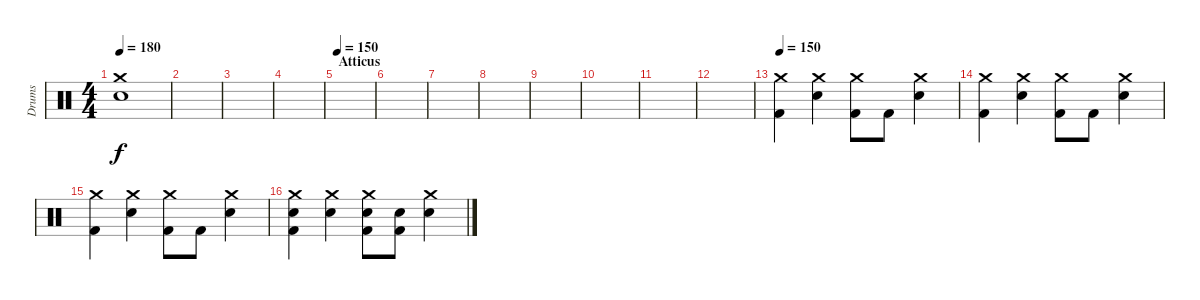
\track ("Drums" "Drums") {instrument percussion}
\staff {score}
\articulation defaults
\ts (4 4)
\tempo 180
\clef neutral
\ks c
("Crash medium (hit)" "Snare (hit) 2").1{dy f} |
|
|
|
\section ("" "Atticus")
\tempo 150
|
|
|
|
|
|
|
|
\tempo 150
("Crash medium (hit)" "Kick (hit) 2").4 ("Crash medium (hit)" "Snare (hit) 2").4 ("Crash medium (hit)" "Kick (hit) 2").8 "Kick (hit) 2".8 ("Crash medium (hit)" "Snare (hit) 2").4 |
("Crash medium (hit)" "Kick (hit) 2").4 ("Crash medium (hit)" "Snare (hit) 2").4 ("Crash medium (hit)" "Kick (hit) 2").8 "Kick (hit) 2".8 ("Crash medium (hit)" "Snare (hit) 2").4 |
("Crash medium (hit)" "Kick (hit) 2").4 ("Crash medium (hit)" "Snare (hit) 2").4 ("Crash medium (hit)" "Kick (hit) 2").8 "Kick (hit) 2".8 ("Crash medium (hit)" "Snare (hit) 2").4 |
("Crash medium (hit)" "Snare (hit) 2" "Kick (hit) 2").4 ("Crash medium (hit)" "Snare (hit) 2").4 ("Crash medium (hit)" "Snare (hit) 2" "Kick (hit) 2").8 ("Snare (hit) 2" "Kick (hit) 2").8 ("Crash medium (hit)" "Snare (hit) 2").4
